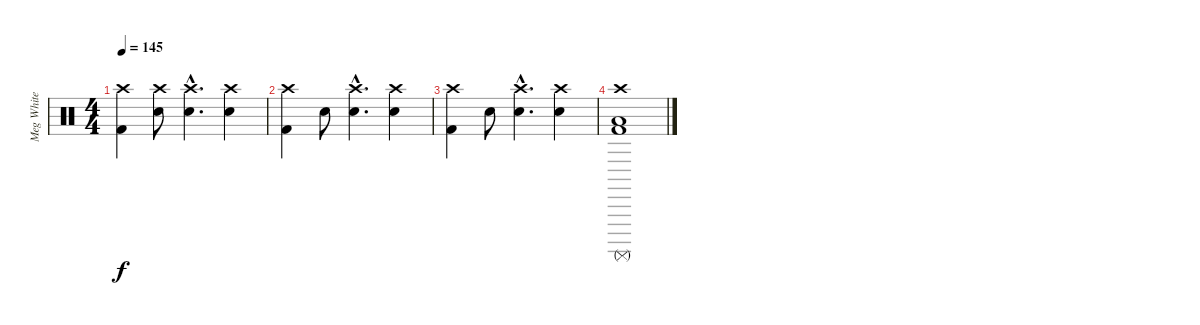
\track ("Meg White" "Meg White") {instrument percussion}
\staff {score}
\articulation defaults
\ts (4 4)
\tempo 145
\clef neutral
\ks c
("Crash high (hit)" "Kick (hit) 2").4{dy f} ("Crash high (hit)" "Electric Snare (hit)").8 ("Crash high (hit)"{hac} "Electric Snare (hit)"{hac}).4{d} ("Crash high (hit)" "Electric Snare (hit)").4 |
("Crash high (hit)" "Kick (hit) 2").4 "Electric Snare (hit)".8 ("Crash high (hit)"{hac} "Electric Snare (hit)"{hac}).4{d} ("Crash high (hit)" "Electric Snare (hit)").4 |
("Crash high (hit)" "Kick (hit) 2").4 "Electric Snare (hit)".8 ("Crash high (hit)"{hac} "Electric Snare (hit)"{hac}).4{d} ("Crash high (hit)" "Electric Snare (hit)").4 |
("Crash high (hit)" "Low Tom (hit)" "Surdo (mute)" "Kick (hit) 2").1
